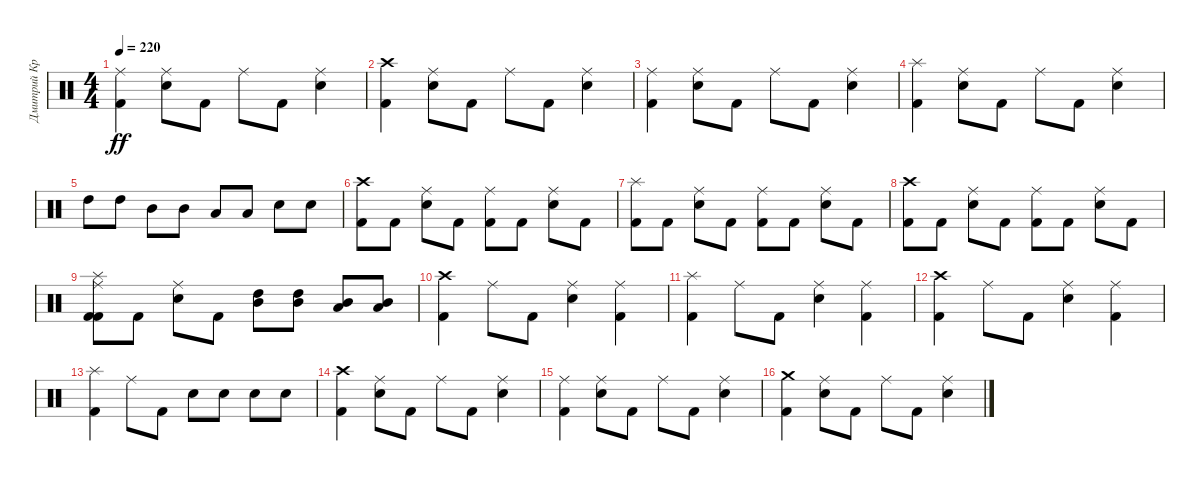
\track ("Дмитрий Кривенков" "Дмитрий Кр") {instrument percussion}
\staff {score}
\articulation defaults
\ts (4 4)
\tempo 220
\clef neutral
\ks c
("Kick (hit) 2" "Ride (middle)").4{dy ff} ("Snare (hit) 2" "Ride (middle)").8 "Kick (hit) 2".8 "Ride (middle)".8 "Kick (hit) 2".8 ("Snare (hit) 2" "Ride (middle)").4 |
("Crash high (hit)" "Kick (hit) 2").4 ("Ride (middle)" "Snare (hit) 2").8 "Kick (hit) 2".8 "Ride (middle)".8 "Kick (hit) 2".8 ("Ride (middle)" "Snare (hit) 2").4 |
("Kick (hit) 2" "Ride (middle)").4 ("Snare (hit) 2" "Ride (middle)").8 "Kick (hit) 2".8 "Ride (middle)".8 "Kick (hit) 2".8 ("Snare (hit) 2" "Ride (middle)").4 |
("Splash (hit)" "Kick (hit) 2").4 ("Ride (middle)" "Snare (hit) 2").8 "Kick (hit) 2".8 "Ride (middle)".8 "Kick (hit) 2".8 ("Ride (middle)" "Snare (hit) 2").4 |
"High Tom (hit)".8 "High Tom (hit)".8 "Mid Tom (hit)".8 "Mid Tom (hit)".8 "Low Tom (hit)".8 "Low Tom (hit)".8 "Snare (hit) 2".8 "Snare (hit) 2".8 |
("Crash high (hit)" "Kick (hit) 2").8 "Kick (hit) 2".8 ("Ride (middle)" "Snare (hit) 2").8 "Kick (hit) 2".8 ("Ride (middle)" "Kick (hit) 2").8 "Kick (hit) 2".8 ("Snare (hit) 2" "Ride (middle)").8 "Kick (hit) 2".8 |
("Kick (hit) 2" "Splash (hit)").8 "Kick (hit) 2".8 ("Snare (hit) 2" "Ride (middle)").8 "Kick (hit) 2".8 ("Kick (hit) 2" "Ride (middle)").8 "Kick (hit) 2".8 ("Snare (hit) 2" "Ride (middle)").8 "Kick (hit) 2".8 |
("Crash high (hit)" "Kick (hit) 2").8 "Kick (hit) 2".8 ("Ride (middle)" "Snare (hit) 2").8 "Kick (hit) 2".8 ("Ride (middle)" "Kick (hit) 2").8 "Kick (hit) 2".8 ("Snare (hit) 2" "Ride (middle)").8 "Kick (hit) 2".8 |
("Ride (middle)" "Kick (hit) 2" "Kick (hit) 2" "Splash (hit)").8 "Kick (hit) 2".8 ("Ride (middle)" "Snare (hit) 2").8 "Kick (hit) 2".8 ("Mid Tom (hit)" "High Tom (hit)").8 ("Mid Tom (hit)" "High Tom (hit)").8 ("Low Tom (hit)" "Mid Tom (hit)").8 ("Low Tom (hit)" "Mid Tom (hit)").8 |
("Kick (hit) 2" "Crash high (hit)").4 "Ride (middle)".8 "Kick (hit) 2".8 ("Snare (hit) 2" "Ride (middle)").4 ("Kick (hit) 2" "Ride (middle)").4 |
("Splash (hit)" "Kick (hit) 2").4 "Ride (middle)".8 "Kick (hit) 2".8 ("Ride (middle)" "Snare (hit) 2").4 ("Ride (middle)" "Kick (hit) 2").4 |
("Kick (hit) 2" "Crash high (hit)").4 "Ride (middle)".8 "Kick (hit) 2".8 ("Snare (hit) 2" "Ride (middle)").4 ("Kick (hit) 2" "Ride (middle)").4 |
("Splash (hit)" "Kick (hit) 2").4 "Ride (middle)".8 "Kick (hit) 2".8 "Snare (hit) 2".8 "Snare (hit) 2".8 "Snare (hit) 2".8 "Snare (hit) 2".8 |
("Crash high (hit)" "Kick (hit) 2").4 ("Ride (middle)" "Snare (hit) 2").8 "Kick (hit) 2".8 "Ride (middle)".8 "Kick (hit) 2".8 ("Ride (middle)" "Snare (hit) 2").4 |
("Kick (hit) 2" "Ride (middle)").4 ("Snare (hit) 2" "Ride (middle)").8 "Kick (hit) 2".8 "Ride (middle)".8 "Kick (hit) 2".8 ("Snare (hit) 2" "Ride (middle)").4 |
("Crash medium (hit)" "Kick (hit) 2").4 ("Ride (middle)" "Snare (hit) 2").8 "Kick (hit) 2".8 "Ride (middle)".8 "Kick (hit) 2".8 ("Ride (middle)" "Snare (hit) 2").4
